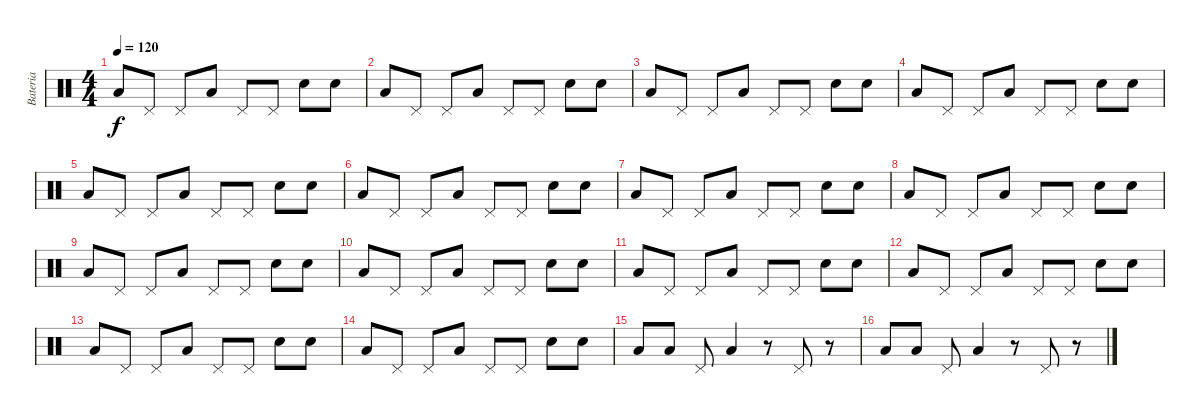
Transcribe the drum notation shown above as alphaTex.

\track ("Bateria" "Bateria") {instrument percussion}
\staff {score}
\articulation defaults
\ts (4 4)
\tempo 120
\clef neutral
\ks c "Low Tom (hit)".8{dy f} "Pedal Hi-Hat (hit)".8 "Pedal Hi-Hat (hit)".8 "Low Tom (hit)".8 "Pedal Hi-Hat (hit)".8 "Pedal Hi-Hat (hit)".8 "Snare (hit) 2".8 "Snare (hit) 2".8
|
"Low Tom (hit)".8 "Pedal Hi-Hat (hit)".8 "Pedal Hi-Hat (hit)".8 "Low Tom (hit)".8 "Pedal Hi-Hat (hit)".8 "Pedal Hi-Hat (hit)".8 "Snare (hit) 2".8 "Snare (hit) 2".8 |
"Low Tom (hit)".8 "Pedal Hi-Hat (hit)".8 "Pedal Hi-Hat (hit)".8 "Low Tom (hit)".8 "Pedal Hi-Hat (hit)".8 "Pedal Hi-Hat (hit)".8 "Snare (hit) 2".8 "Snare (hit) 2".8 |
"Low Tom (hit)".8 "Pedal Hi-Hat (hit)".8 "Pedal Hi-Hat (hit)".8 "Low Tom (hit)".8 "Pedal Hi-Hat (hit)".8 "Pedal Hi-Hat (hit)".8 "Snare (hit) 2".8 "Snare (hit) 2".8 |
"Low Tom (hit)".8 "Pedal Hi-Hat (hit)".8 "Pedal Hi-Hat (hit)".8 "Low Tom (hit)".8 "Pedal Hi-Hat (hit)".8 "Pedal Hi-Hat (hit)".8 "Snare (hit) 2".8 "Snare (hit) 2".8 |
"Low Tom (hit)".8 "Pedal Hi-Hat (hit)".8 "Pedal Hi-Hat (hit)".8 "Low Tom (hit)".8 "Pedal Hi-Hat (hit)".8 "Pedal Hi-Hat (hit)".8 "Snare (hit) 2".8 "Snare (hit) 2".8 |
"Low Tom (hit)".8 "Pedal Hi-Hat (hit)".8 "Pedal Hi-Hat (hit)".8 "Low Tom (hit)".8 "Pedal Hi-Hat (hit)".8 "Pedal Hi-Hat (hit)".8 "Snare (hit) 2".8 "Snare (hit) 2".8 |
"Low Tom (hit)".8 "Pedal Hi-Hat (hit)".8 "Pedal Hi-Hat (hit)".8 "Low Tom (hit)".8 "Pedal Hi-Hat (hit)".8 "Pedal Hi-Hat (hit)".8 "Snare (hit) 2".8 "Snare (hit) 2".8 |
"Low Tom (hit)".8 "Pedal Hi-Hat (hit)".8 "Pedal Hi-Hat (hit)".8 "Low Tom (hit)".8 "Pedal Hi-Hat (hit)".8 "Pedal Hi-Hat (hit)".8 "Snare (hit) 2".8 "Snare (hit) 2".8 |
"Low Tom (hit)".8 "Pedal Hi-Hat (hit)".8 "Pedal Hi-Hat (hit)".8 "Low Tom (hit)".8 "Pedal Hi-Hat (hit)".8 "Pedal Hi-Hat (hit)".8 "Snare (hit) 2".8 "Snare (hit) 2".8 |
"Low Tom (hit)".8 "Pedal Hi-Hat (hit)".8 "Pedal Hi-Hat (hit)".8 "Low Tom (hit)".8 "Pedal Hi-Hat (hit)".8 "Pedal Hi-Hat (hit)".8 "Snare (hit) 2".8 "Snare (hit) 2".8 |
"Low Tom (hit)".8 "Pedal Hi-Hat (hit)".8 "Pedal Hi-Hat (hit)".8 "Low Tom (hit)".8 "Pedal Hi-Hat (hit)".8 "Pedal Hi-Hat (hit)".8 "Snare (hit) 2".8 "Snare (hit) 2".8 |
"Low Tom (hit)".8 "Pedal Hi-Hat (hit)".8 "Pedal Hi-Hat (hit)".8 "Low Tom (hit)".8 "Pedal Hi-Hat (hit)".8 "Pedal Hi-Hat (hit)".8 "Snare (hit) 2".8 "Snare (hit) 2".8 |
"Low Tom (hit)".8 "Pedal Hi-Hat (hit)".8 "Pedal Hi-Hat (hit)".8 "Low Tom (hit)".8 "Pedal Hi-Hat (hit)".8 "Pedal Hi-Hat (hit)".8 "Snare (hit) 2".8 "Snare (hit) 2".8 |
"Low Tom (hit)".8 "Low Tom (hit)".8 "Pedal Hi-Hat (hit)".8 "Low Tom (hit)".4 r.8 "Pedal Hi-Hat (hit)".8 r.8 |
"Low Tom (hit)".8 "Low Tom (hit)".8 "Pedal Hi-Hat (hit)".8 "Low Tom (hit)".4 r.8 "Pedal Hi-Hat (hit)".8 r.8
